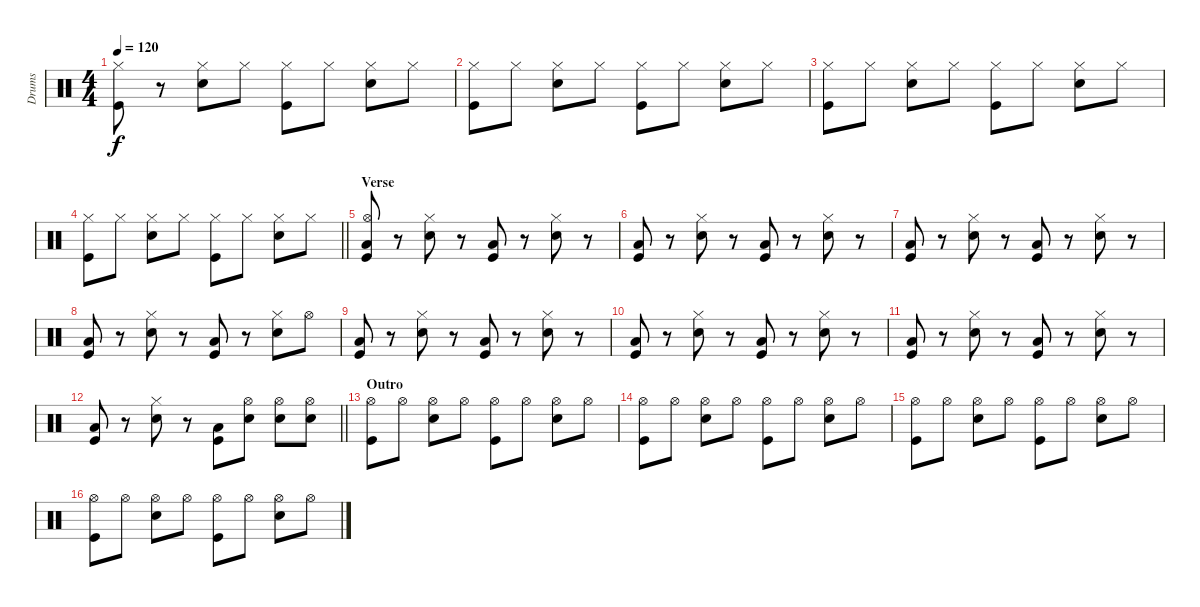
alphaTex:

\track ("Drums" "Drums") {instrument percussion}
\staff {score}
\articulation defaults
\ts (4 4)
\tempo 120
\clef neutral
\ks c
("Hi-Hat (closed)" "Kick (hit)").8{dy f} r.8 ("Hi-Hat (closed)" "Snare (hit) 2").8 "Hi-Hat (closed)".8 ("Hi-Hat (closed)" "Kick (hit)").8 "Hi-Hat (closed)".8 ("Hi-Hat (closed)" "Snare (hit) 2").8 "Hi-Hat (closed)".8 |
("Hi-Hat (closed)" "Kick (hit)").8 "Hi-Hat (closed)".8 ("Hi-Hat (closed)" "Snare (hit) 2").8 "Hi-Hat (closed)".8 ("Hi-Hat (closed)" "Kick (hit)").8 "Hi-Hat (closed)".8 ("Hi-Hat (closed)" "Snare (hit) 2").8 "Hi-Hat (closed)".8 |
("Hi-Hat (closed)" "Kick (hit)").8 "Hi-Hat (closed)".8 ("Hi-Hat (closed)" "Snare (hit) 2").8 "Hi-Hat (closed)".8 ("Hi-Hat (closed)" "Kick (hit)").8 "Hi-Hat (closed)".8 ("Hi-Hat (closed)" "Snare (hit) 2").8 "Hi-Hat (closed)".8 |
\barLineRight lightlight
("Hi-Hat (closed)" "Kick (hit)").8 "Hi-Hat (closed)".8 ("Hi-Hat (closed)" "Snare (hit) 2").8 "Hi-Hat (closed)".8 ("Hi-Hat (closed)" "Kick (hit)").8 "Hi-Hat (closed)".8 ("Hi-Hat (closed)" "Snare (hit) 2").8 "Hi-Hat (closed)".8 |
\section ("" "Verse")
("Hi-Hat (open)" "Low Floor Tom (hit)" "Kick (hit)").8 r.8 ("Hi-Hat (closed)" "Snare (hit) 2").8 r.8 ("Low Floor Tom (hit)" "Kick (hit)").8 r.8 ("Hi-Hat (closed)" "Snare (hit) 2").8 r.8 |
("Low Floor Tom (hit)" "Kick (hit)").8 r.8 ("Hi-Hat (closed)" "Snare (hit) 2").8 r.8 ("Low Floor Tom (hit)" "Kick (hit)").8 r.8 ("Hi-Hat (closed)" "Snare (hit) 2").8 r.8 |
("Low Floor Tom (hit)" "Kick (hit)").8 r.8 ("Hi-Hat (closed)" "Snare (hit) 2").8 r.8 ("Low Floor Tom (hit)" "Kick (hit)").8 r.8 ("Hi-Hat (closed)" "Snare (hit) 2").8 r.8 |
("Low Floor Tom (hit)" "Kick (hit)").8 r.8 ("Hi-Hat (closed)" "Snare (hit) 2").8 r.8 ("Low Floor Tom (hit)" "Kick (hit)").8 r.8 ("Hi-Hat (closed)" "Snare (hit) 2").8 "Hi-Hat (open)".8 |
("Low Floor Tom (hit)" "Kick (hit)").8 r.8 ("Hi-Hat (closed)" "Snare (hit) 2").8 r.8 ("Low Floor Tom (hit)" "Kick (hit)").8 r.8 ("Hi-Hat (closed)" "Snare (hit) 2").8 r.8 |
("Low Floor Tom (hit)" "Kick (hit)").8 r.8 ("Hi-Hat (closed)" "Snare (hit) 2").8 r.8 ("Low Floor Tom (hit)" "Kick (hit)").8 r.8 ("Hi-Hat (closed)" "Snare (hit) 2").8 r.8 |
("Low Floor Tom (hit)" "Kick (hit)").8 r.8 ("Hi-Hat (closed)" "Snare (hit) 2").8 r.8 ("Low Floor Tom (hit)" "Kick (hit)").8 r.8 ("Hi-Hat (closed)" "Snare (hit) 2").8 r.8 |
\barLineRight lightlight
("Low Floor Tom (hit)" "Kick (hit)").8 r.8 ("Hi-Hat (closed)" "Snare (hit) 2").8 r.8 ("Low Floor Tom (hit)" "Kick (hit)").8 ("Hi-Hat (open)" "Snare (hit) 2").8 ("Hi-Hat (open)" "Snare (hit) 2").8 ("Hi-Hat (open)" "Snare (hit) 2").8 |
\section ("" "Outro")
("Hi-Hat (open)" "Kick (hit)").8 "Hi-Hat (open)".8 ("Hi-Hat (open)" "Snare (hit) 2").8 "Hi-Hat (open)".8 ("Hi-Hat (open)" "Kick (hit)").8 "Hi-Hat (open)".8 ("Hi-Hat (open)" "Snare (hit) 2").8 "Hi-Hat (open)".8 |
("Hi-Hat (open)" "Kick (hit)").8 "Hi-Hat (open)".8 ("Hi-Hat (open)" "Snare (hit) 2").8 "Hi-Hat (open)".8 ("Hi-Hat (open)" "Kick (hit)").8 "Hi-Hat (open)".8 ("Hi-Hat (open)" "Snare (hit) 2").8 "Hi-Hat (open)".8 |
("Hi-Hat (open)" "Kick (hit)").8 "Hi-Hat (open)".8 ("Hi-Hat (open)" "Snare (hit) 2").8 "Hi-Hat (open)".8 ("Hi-Hat (open)" "Kick (hit)").8 "Hi-Hat (open)".8 ("Hi-Hat (open)" "Snare (hit) 2").8 "Hi-Hat (open)".8 |
("Hi-Hat (open)" "Kick (hit)").8 "Hi-Hat (open)".8 ("Hi-Hat (open)" "Snare (hit) 2").8 "Hi-Hat (open)".8 ("Hi-Hat (open)" "Kick (hit)").8 "Hi-Hat (open)".8 ("Hi-Hat (open)" "Snare (hit) 2").8 "Hi-Hat (open)".8
